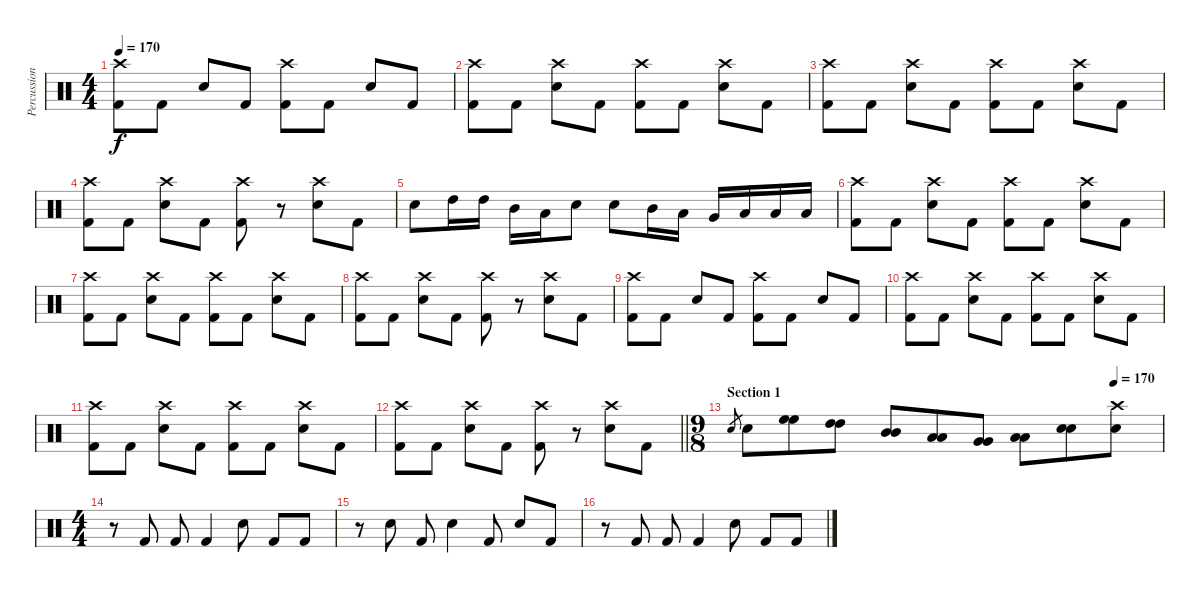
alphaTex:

\track ("Percussions" "Percussion") {instrument percussion}
\staff {score}
\articulation defaults
\ts (4 4)
\tempo 170
\clef neutral
\ks c
("Crash high (hit)" "Kick (hit) 2").8{dy f} "Kick (hit) 2".8 "Electric Snare (hit)".8 "Kick (hit) 2".8 ("Crash high (hit)" "Kick (hit) 2").8 "Kick (hit) 2".8 "Electric Snare (hit)".8 "Kick (hit) 2".8 |
("Crash high (hit)" "Kick (hit) 2").8 "Kick (hit) 2".8 ("Crash high (hit)" "Electric Snare (hit)").8 "Kick (hit) 2".8 ("Crash high (hit)" "Kick (hit) 2").8 "Kick (hit) 2".8 ("Crash high (hit)" "Electric Snare (hit)").8 "Kick (hit) 2".8 |
("Crash high (hit)" "Kick (hit) 2").8 "Kick (hit) 2".8 ("Crash high (hit)" "Electric Snare (hit)").8 "Kick (hit) 2".8 ("Crash high (hit)" "Kick (hit) 2").8 "Kick (hit) 2".8 ("Crash high (hit)" "Electric Snare (hit)").8 "Kick (hit) 2".8 |
("Crash high (hit)" "Kick (hit) 2").8 "Kick (hit) 2".8 ("Crash high (hit)" "Electric Snare (hit)").8 "Kick (hit) 2".8 ("Crash high (hit)" "Kick (hit) 2").8 r.8 ("Crash high (hit)" "Electric Snare (hit)").8 "Kick (hit) 2".8 |
"Electric Snare (hit)".8 "High Tom (hit)".16 "High Tom (hit)".16 "Mid Tom (hit)".16 "Low Tom (hit)".16 "Electric Snare (hit)".8 "Electric Snare (hit)".8 "Mid Tom (hit)".16 "Low Tom (hit)".16 "Very Low Tom (hit)".16 "Low Floor Tom (hit)".16 "Low Floor Tom (hit)".16 "Low Floor Tom (hit)".16 |
("Crash high (hit)" "Kick (hit) 2").8 "Kick (hit) 2".8 ("Crash high (hit)" "Electric Snare (hit)").8 "Kick (hit) 2".8 ("Crash high (hit)" "Kick (hit) 2").8 "Kick (hit) 2".8 ("Crash high (hit)" "Electric Snare (hit)").8 "Kick (hit) 2".8 |
("Crash high (hit)" "Kick (hit) 2").8 "Kick (hit) 2".8 ("Crash high (hit)" "Electric Snare (hit)").8 "Kick (hit) 2".8 ("Crash high (hit)" "Kick (hit) 2").8 "Kick (hit) 2".8 ("Crash high (hit)" "Electric Snare (hit)").8 "Kick (hit) 2".8 |
("Crash high (hit)" "Kick (hit) 2").8 "Kick (hit) 2".8 ("Crash high (hit)" "Electric Snare (hit)").8 "Kick (hit) 2".8 ("Crash high (hit)" "Kick (hit) 2").8 r.8 ("Crash high (hit)" "Electric Snare (hit)").8 "Kick (hit) 2".8 |
("Crash high (hit)" "Kick (hit) 2").8 "Kick (hit) 2".8 "Electric Snare (hit)".8 "Kick (hit) 2".8 ("Crash high (hit)" "Kick (hit) 2").8 "Kick (hit) 2".8 "Electric Snare (hit)".8 "Kick (hit) 2".8 |
("Crash high (hit)" "Kick (hit) 2").8 "Kick (hit) 2".8 ("Crash high (hit)" "Electric Snare (hit)").8 "Kick (hit) 2".8 ("Crash high (hit)" "Kick (hit) 2").8 "Kick (hit) 2".8 ("Crash high (hit)" "Electric Snare (hit)").8 "Kick (hit) 2".8 |
("Crash high (hit)" "Kick (hit) 2").8 "Kick (hit) 2".8 ("Crash high (hit)" "Electric Snare (hit)").8 "Kick (hit) 2".8 ("Crash high (hit)" "Kick (hit) 2").8 "Kick (hit) 2".8 ("Crash high (hit)" "Electric Snare (hit)").8 "Kick (hit) 2".8 |
\barLineRight lightlight
("Crash high (hit)" "Kick (hit) 2").8 "Kick (hit) 2".8 ("Crash high (hit)" "Electric Snare (hit)").8 "Kick (hit) 2".8 ("Crash high (hit)" "Kick (hit) 2").8 r.8 ("Crash high (hit)" "Electric Snare (hit)").8 "Kick (hit) 2".8 |
\ts (9 8)
\section ("" "Section 1")
\tempo (170 0.8888888888888888)
"Electric Snare (hit)".8{gr} "Electric Snare (hit)".8 ("High Floor Tom (hit)" "High Floor Tom (hit)").8 ("High Tom (hit)" "High Tom (hit)").8 ("Mid Tom (hit)" "Mid Tom (hit)").8 ("Low Tom (hit)" "Low Tom (hit)").8 ("Very Low Tom (hit)" "Very Low Tom (hit)").8 ("Low Floor Tom (hit)" "Low Floor Tom (hit)").8 ("Electric Snare (hit)" "Electric Snare (hit)").8 ("Crash high (hit)" "Electric Snare (hit)").8{volume 4} |
\ts (4 4)
r.8 "Kick (hit) 2".8 "Kick (hit) 2".8 "Kick (hit) 2".4 "Electric Snare (hit)".8 "Kick (hit) 2".8 "Kick (hit) 2".8 |
r.8 "Electric Snare (hit)".8 "Kick (hit) 2".8 "Electric Snare (hit)".4 "Kick (hit) 2".8 "Electric Snare (hit)".8 "Kick (hit) 2".8 |
r.8 "Kick (hit) 2".8 "Kick (hit) 2".8 "Kick (hit) 2".4 "Electric Snare (hit)".8 "Kick (hit) 2".8 "Kick (hit) 2".8
